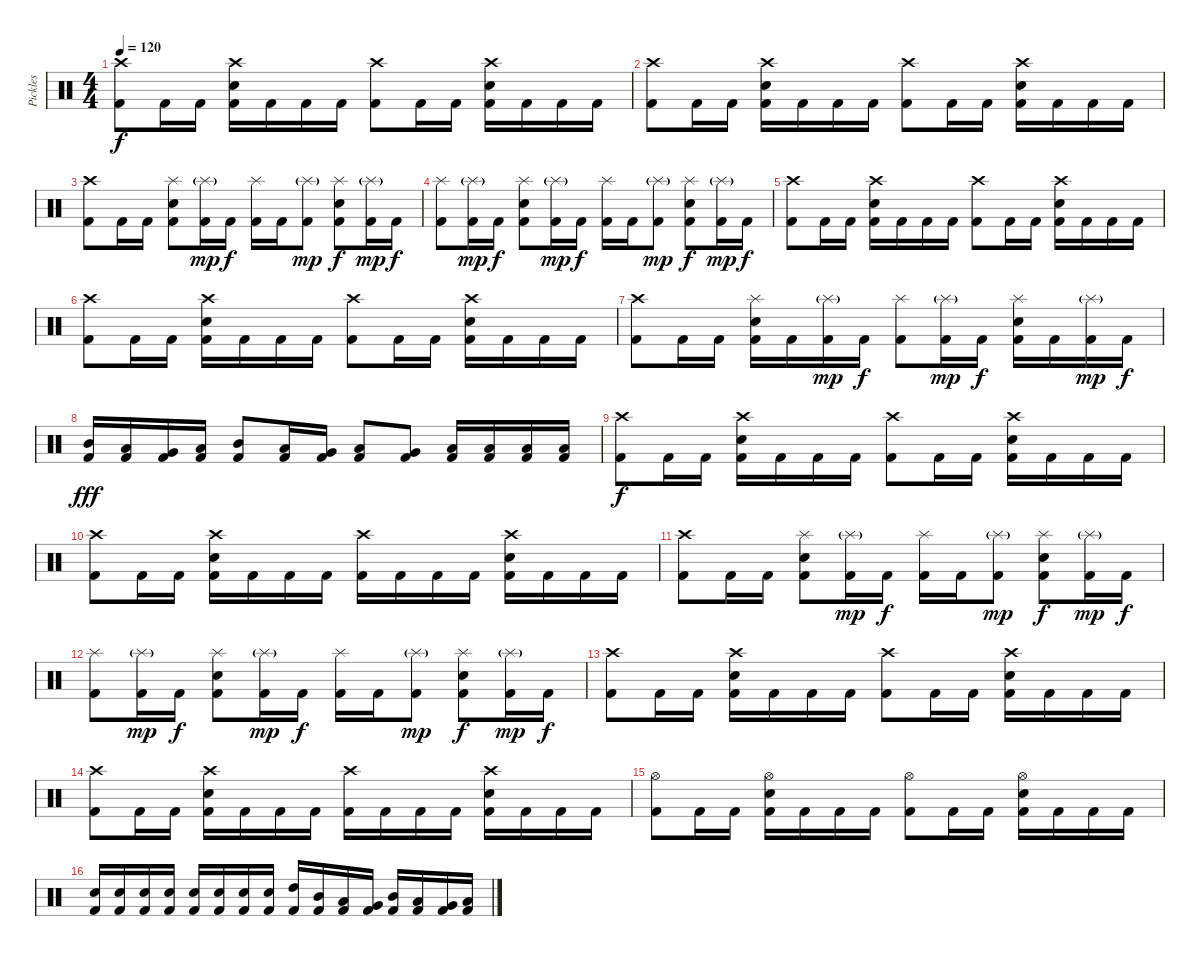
\track ("Pickles" "Pickles") {instrument percussion}
\staff {score}
\articulation defaults
\ts (4 4)
\tempo 120
\clef neutral
\ks c
("Crash high (hit)" "Kick (hit) 2").8{dy f} "Kick (hit) 2".16 "Kick (hit) 2".16 ("Crash high (hit)" "Snare (hit) 2" "Kick (hit) 2").16 "Kick (hit) 2".16 "Kick (hit) 2".16 "Kick (hit) 2".16 ("Crash high (hit)" "Kick (hit) 2").8 "Kick (hit) 2".16 "Kick (hit) 2".16 ("Crash high (hit)" "Snare (hit) 2" "Kick (hit) 2").16 "Kick (hit) 2".16 "Kick (hit) 2".16 "Kick (hit) 2".16 |
("Crash high (hit)" "Kick (hit) 2").8 "Kick (hit) 2".16 "Kick (hit) 2".16 ("Crash high (hit)" "Snare (hit) 2" "Kick (hit) 2").16 "Kick (hit) 2".16 "Kick (hit) 2".16 "Kick (hit) 2".16 ("Crash high (hit)" "Kick (hit) 2").8 "Kick (hit) 2".16 "Kick (hit) 2".16 ("Crash high (hit)" "Snare (hit) 2" "Kick (hit) 2").16 "Kick (hit) 2".16 "Kick (hit) 2".16 "Kick (hit) 2".16 |
("Crash high (hit)" "Kick (hit) 2").8 "Kick (hit) 2".16 "Kick (hit) 2".16 ("Splash (hit)" "Snare (hit) 2" "Kick (hit) 2").8 ("Splash (hit)"{g} "Kick (hit) 2").16{dy mp} "Kick (hit) 2".16{dy f} ("Splash (hit)" "Kick (hit) 2").16 "Kick (hit) 2".16 ("Splash (hit)"{g} "Kick (hit) 2").8{dy mp} ("Splash (hit)" "Snare (hit) 2" "Kick (hit) 2").8{dy f} ("Splash (hit)"{g} "Kick (hit) 2").16{dy mp} "Kick (hit) 2".16{dy f} |
("Splash (hit)" "Kick (hit) 2").8 ("Splash (hit)"{g} "Kick (hit) 2").16{dy mp} "Kick (hit) 2".16{dy f} ("Splash (hit)" "Snare (hit) 2" "Kick (hit) 2").8 ("Splash (hit)"{g} "Kick (hit) 2").16{dy mp} "Kick (hit) 2".16{dy f} ("Splash (hit)" "Kick (hit) 2").16 "Kick (hit) 2".16 ("Splash (hit)"{g} "Kick (hit) 2").8{dy mp} ("Splash (hit)" "Snare (hit) 2" "Kick (hit) 2").8{dy f} ("Splash (hit)"{g} "Kick (hit) 2").16{dy mp} "Kick (hit) 2".16{dy f} |
("Crash high (hit)" "Kick (hit) 2").8 "Kick (hit) 2".16 "Kick (hit) 2".16 ("Crash high (hit)" "Snare (hit) 2" "Kick (hit) 2").16 "Kick (hit) 2".16 "Kick (hit) 2".16 "Kick (hit) 2".16 ("Crash high (hit)" "Kick (hit) 2").8 "Kick (hit) 2".16 "Kick (hit) 2".16 ("Crash high (hit)" "Snare (hit) 2" "Kick (hit) 2").16 "Kick (hit) 2".16 "Kick (hit) 2".16 "Kick (hit) 2".16 |
("Crash high (hit)" "Kick (hit) 2").8 "Kick (hit) 2".16 "Kick (hit) 2".16 ("Crash high (hit)" "Snare (hit) 2" "Kick (hit) 2").16 "Kick (hit) 2".16 "Kick (hit) 2".16 "Kick (hit) 2".16 ("Crash high (hit)" "Kick (hit) 2").8 "Kick (hit) 2".16 "Kick (hit) 2".16 ("Crash high (hit)" "Snare (hit) 2" "Kick (hit) 2").16 "Kick (hit) 2".16 "Kick (hit) 2".16 "Kick (hit) 2".16 |
("Crash high (hit)" "Kick (hit) 2").8 "Kick (hit) 2".16 "Kick (hit) 2".16 ("Splash (hit)" "Snare (hit) 2" "Kick (hit) 2").16 "Kick (hit) 2".16 ("Splash (hit)"{g} "Kick (hit) 2").16{dy mp} "Kick (hit) 2".16{dy f} ("Splash (hit)" "Kick (hit) 2").8 ("Splash (hit)"{g} "Kick (hit) 2").16{dy mp} "Kick (hit) 2".16{dy f} ("Splash (hit)" "Snare (hit) 2" "Kick (hit) 2").16 "Kick (hit) 2".16 ("Splash (hit)"{g} "Kick (hit) 2").16{dy mp} "Kick (hit) 2".16{dy f} |
("Mid Tom (hit)" "Kick (hit) 2").16{dy fff} ("Low Tom (hit)" "Kick (hit) 2").16 ("Very Low Tom (hit)" "Kick (hit) 2").16 ("Low Tom (hit)" "Kick (hit) 2").16 ("Mid Tom (hit)" "Kick (hit) 2").8 ("Low Tom (hit)" "Kick (hit) 2").16 ("Very Low Tom (hit)" "Kick (hit) 2").16 ("Low Tom (hit)" "Kick (hit) 2").8 ("Very Low Tom (hit)" "Kick (hit) 2").8 ("Low Floor Tom (hit)" "Kick (hit) 2").16 ("Low Floor Tom (hit)" "Kick (hit) 2").16 ("Low Floor Tom (hit)" "Kick (hit) 2").16 ("Low Floor Tom (hit)" "Kick (hit) 2").16 |
("Crash high (hit)" "Kick (hit) 2").8{dy f} "Kick (hit) 2".16 "Kick (hit) 2".16 ("Crash high (hit)" "Snare (hit) 2" "Kick (hit) 2").16 "Kick (hit) 2".16 "Kick (hit) 2".16 "Kick (hit) 2".16 ("Crash high (hit)" "Kick (hit) 2").8 "Kick (hit) 2".16 "Kick (hit) 2".16 ("Crash high (hit)" "Snare (hit) 2" "Kick (hit) 2").16 "Kick (hit) 2".16 "Kick (hit) 2".16 "Kick (hit) 2".16 |
("Crash high (hit)" "Kick (hit) 2").8 "Kick (hit) 2".16 "Kick (hit) 2".16 ("Crash high (hit)" "Snare (hit) 2" "Kick (hit) 2").16 "Kick (hit) 2".16 "Kick (hit) 2".16 "Kick (hit) 2".16 ("Crash high (hit)" "Kick (hit) 2").16 "Kick (hit) 2".16 "Kick (hit) 2".16 "Kick (hit) 2".16 ("Crash high (hit)" "Snare (hit) 2" "Kick (hit) 2").16 "Kick (hit) 2".16 "Kick (hit) 2".16 "Kick (hit) 2".16 |
("Crash high (hit)" "Kick (hit) 2").8 "Kick (hit) 2".16 "Kick (hit) 2".16 ("Splash (hit)" "Snare (hit) 2" "Kick (hit) 2").8 ("Splash (hit)"{g} "Kick (hit) 2").16{dy mp} "Kick (hit) 2".16{dy f} ("Splash (hit)" "Kick (hit) 2").16 "Kick (hit) 2".16 ("Splash (hit)"{g} "Kick (hit) 2").8{dy mp} ("Splash (hit)" "Snare (hit) 2" "Kick (hit) 2").8{dy f} ("Splash (hit)"{g} "Kick (hit) 2").16{dy mp} "Kick (hit) 2".16{dy f} |
("Splash (hit)" "Kick (hit) 2").8 ("Splash (hit)"{g} "Kick (hit) 2").16{dy mp} "Kick (hit) 2".16{dy f} ("Splash (hit)" "Snare (hit) 2" "Kick (hit) 2").8 ("Splash (hit)"{g} "Kick (hit) 2").16{dy mp} "Kick (hit) 2".16{dy f} ("Splash (hit)" "Kick (hit) 2").16 "Kick (hit) 2".16 ("Splash (hit)"{g} "Kick (hit) 2").8{dy mp} ("Splash (hit)" "Snare (hit) 2" "Kick (hit) 2").8{dy f} ("Splash (hit)"{g} "Kick (hit) 2").16{dy mp} "Kick (hit) 2".16{dy f} |
("Crash high (hit)" "Kick (hit) 2").8 "Kick (hit) 2".16 "Kick (hit) 2".16 ("Crash high (hit)" "Snare (hit) 2" "Kick (hit) 2").16 "Kick (hit) 2".16 "Kick (hit) 2".16 "Kick (hit) 2".16 ("Crash high (hit)" "Kick (hit) 2").8 "Kick (hit) 2".16 "Kick (hit) 2".16 ("Crash high (hit)" "Snare (hit) 2" "Kick (hit) 2").16 "Kick (hit) 2".16 "Kick (hit) 2".16 "Kick (hit) 2".16 |
("Crash high (hit)" "Kick (hit) 2").8 "Kick (hit) 2".16 "Kick (hit) 2".16 ("Crash high (hit)" "Snare (hit) 2" "Kick (hit) 2").16 "Kick (hit) 2".16 "Kick (hit) 2".16 "Kick (hit) 2".16 ("Crash high (hit)" "Kick (hit) 2").16 "Kick (hit) 2".16 "Kick (hit) 2".16 "Kick (hit) 2".16 ("Crash high (hit)" "Snare (hit) 2" "Kick (hit) 2").16 "Kick (hit) 2".16 "Kick (hit) 2".16 "Kick (hit) 2".16 |
("Hi-Hat (open)" "Kick (hit) 2").8 "Kick (hit) 2".16 "Kick (hit) 2".16 ("Hi-Hat (open)" "Snare (hit) 2" "Kick (hit) 2").16 "Kick (hit) 2".16 "Kick (hit) 2".16 "Kick (hit) 2".16 ("Hi-Hat (open)" "Kick (hit) 2").8 "Kick (hit) 2".16 "Kick (hit) 2".16 ("Hi-Hat (open)" "Snare (hit) 2" "Kick (hit) 2").16 "Kick (hit) 2".16 "Kick (hit) 2".16 "Kick (hit) 2".16 |
("Snare (hit) 2" "Kick (hit) 2").16 ("Snare (hit) 2" "Kick (hit) 2").16 ("Snare (hit) 2" "Kick (hit) 2").16 ("Snare (hit) 2" "Kick (hit) 2").16 ("Snare (hit) 2" "Kick (hit) 2").16 ("Snare (hit) 2" "Kick (hit) 2").16 ("Snare (hit) 2" "Kick (hit) 2").16 ("Snare (hit) 2" "Kick (hit) 2").16 ("High Tom (hit)" "Kick (hit) 2").16 ("Mid Tom (hit)" "Kick (hit) 2").16 ("Low Tom (hit)" "Kick (hit) 2").16 ("Very Low Tom (hit)" "Kick (hit) 2").16 ("Mid Tom (hit)" "Kick (hit) 2").16 ("Low Tom (hit)" "Kick (hit) 2").16 ("Very Low Tom (hit)" "Kick (hit) 2").16 ("Low Floor Tom (hit)" "Kick (hit) 2").16
